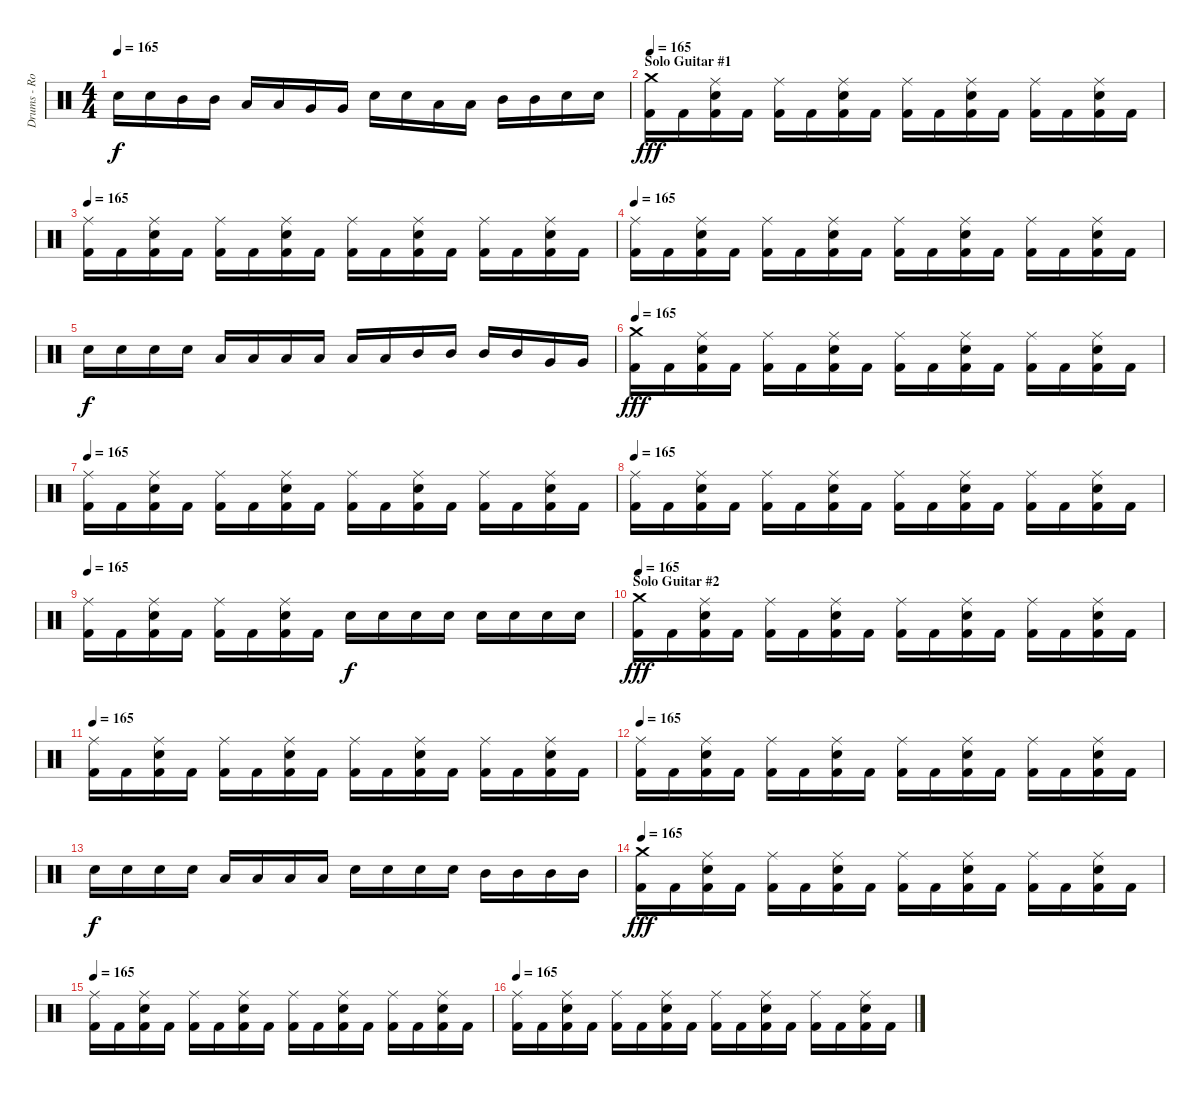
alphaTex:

\track ("Drums - Rodrigo" "Drums - Ro") {instrument percussion}
\staff {score}
\articulation defaults
\ts (4 4)
\tempo 165
\clef neutral
\ks c "Electric Snare (hit)".16{dy f} "Electric Snare (hit)".16 "Mid Tom (hit)".16 "Mid Tom (hit)".16 "Low Tom (hit)".16 "Low Tom (hit)".16 "Very Low Tom (hit)".16 "Very Low Tom (hit)".16 "Electric Snare (hit)".16 "Electric Snare (hit)".16 "Low Tom (hit)".16 "Low Tom (hit)".16 "Mid Tom (hit)".16 "Mid Tom (hit)".16 "Electric Snare (hit)".16 "Electric Snare (hit)".16
|
\section ("" "Solo Guitar #1")
\tempo 165
("Crash medium (hit)" "Kick (hit) 2").16{dy fff} "Kick (hit) 2".16 ("Ride (middle)" "Electric Snare (hit)" "Kick (hit) 2").16 "Kick (hit) 2".16 ("Ride (middle)" "Kick (hit) 2").16 "Kick (hit) 2".16 ("Ride (middle)" "Electric Snare (hit)" "Kick (hit) 2").16 "Kick (hit) 2".16 ("Ride (middle)" "Kick (hit) 2").16 "Kick (hit) 2".16 ("Ride (middle)" "Electric Snare (hit)" "Kick (hit) 2").16 "Kick (hit) 2".16 ("Ride (middle)" "Kick (hit) 2").16 "Kick (hit) 2".16 ("Ride (middle)" "Electric Snare (hit)" "Kick (hit) 2").16 "Kick (hit) 2".16 |
\tempo 165
("Ride (middle)" "Kick (hit) 2").16 "Kick (hit) 2".16 ("Ride (middle)" "Electric Snare (hit)" "Kick (hit) 2").16 "Kick (hit) 2".16 ("Ride (middle)" "Kick (hit) 2").16 "Kick (hit) 2".16 ("Ride (middle)" "Electric Snare (hit)" "Kick (hit) 2").16 "Kick (hit) 2".16 ("Ride (middle)" "Kick (hit) 2").16 "Kick (hit) 2".16 ("Ride (middle)" "Electric Snare (hit)" "Kick (hit) 2").16 "Kick (hit) 2".16 ("Ride (middle)" "Kick (hit) 2").16 "Kick (hit) 2".16 ("Ride (middle)" "Electric Snare (hit)" "Kick (hit) 2").16 "Kick (hit) 2".16 |
\tempo 165
("Ride (middle)" "Kick (hit) 2").16 "Kick (hit) 2".16 ("Ride (middle)" "Electric Snare (hit)" "Kick (hit) 2").16 "Kick (hit) 2".16 ("Ride (middle)" "Kick (hit) 2").16 "Kick (hit) 2".16 ("Ride (middle)" "Electric Snare (hit)" "Kick (hit) 2").16 "Kick (hit) 2".16 ("Ride (middle)" "Kick (hit) 2").16 "Kick (hit) 2".16 ("Ride (middle)" "Electric Snare (hit)" "Kick (hit) 2").16 "Kick (hit) 2".16 ("Ride (middle)" "Kick (hit) 2").16 "Kick (hit) 2".16 ("Ride (middle)" "Electric Snare (hit)" "Kick (hit) 2").16 "Kick (hit) 2".16 |
"Electric Snare (hit)".16{dy f} "Electric Snare (hit)".16 "Electric Snare (hit)".16 "Electric Snare (hit)".16 "Low Tom (hit)".16 "Low Tom (hit)".16 "Low Tom (hit)".16 "Low Tom (hit)".16 "Low Tom (hit)".16 "Low Tom (hit)".16 "Mid Tom (hit)".16 "Mid Tom (hit)".16 "Mid Tom (hit)".16 "Mid Tom (hit)".16 "Very Low Tom (hit)".16 "Very Low Tom (hit)".16 |
\tempo 165
("Crash medium (hit)" "Kick (hit) 2").16{dy fff} "Kick (hit) 2".16 ("Ride (middle)" "Electric Snare (hit)" "Kick (hit) 2").16 "Kick (hit) 2".16 ("Ride (middle)" "Kick (hit) 2").16 "Kick (hit) 2".16 ("Ride (middle)" "Electric Snare (hit)" "Kick (hit) 2").16 "Kick (hit) 2".16 ("Ride (middle)" "Kick (hit) 2").16 "Kick (hit) 2".16 ("Ride (middle)" "Electric Snare (hit)" "Kick (hit) 2").16 "Kick (hit) 2".16 ("Ride (middle)" "Kick (hit) 2").16 "Kick (hit) 2".16 ("Ride (middle)" "Electric Snare (hit)" "Kick (hit) 2").16 "Kick (hit) 2".16 |
\tempo 165
("Ride (middle)" "Kick (hit) 2").16 "Kick (hit) 2".16 ("Ride (middle)" "Electric Snare (hit)" "Kick (hit) 2").16 "Kick (hit) 2".16 ("Ride (middle)" "Kick (hit) 2").16 "Kick (hit) 2".16 ("Ride (middle)" "Electric Snare (hit)" "Kick (hit) 2").16 "Kick (hit) 2".16 ("Ride (middle)" "Kick (hit) 2").16 "Kick (hit) 2".16 ("Ride (middle)" "Electric Snare (hit)" "Kick (hit) 2").16 "Kick (hit) 2".16 ("Ride (middle)" "Kick (hit) 2").16 "Kick (hit) 2".16 ("Ride (middle)" "Electric Snare (hit)" "Kick (hit) 2").16 "Kick (hit) 2".16 |
\tempo 165
("Ride (middle)" "Kick (hit) 2").16 "Kick (hit) 2".16 ("Ride (middle)" "Electric Snare (hit)" "Kick (hit) 2").16 "Kick (hit) 2".16 ("Ride (middle)" "Kick (hit) 2").16 "Kick (hit) 2".16 ("Ride (middle)" "Electric Snare (hit)" "Kick (hit) 2").16 "Kick (hit) 2".16 ("Ride (middle)" "Kick (hit) 2").16 "Kick (hit) 2".16 ("Ride (middle)" "Electric Snare (hit)" "Kick (hit) 2").16 "Kick (hit) 2".16 ("Ride (middle)" "Kick (hit) 2").16 "Kick (hit) 2".16 ("Ride (middle)" "Electric Snare (hit)" "Kick (hit) 2").16 "Kick (hit) 2".16 |
\tempo 165
("Ride (middle)" "Kick (hit) 2").16 "Kick (hit) 2".16 ("Ride (middle)" "Electric Snare (hit)" "Kick (hit) 2").16 "Kick (hit) 2".16 ("Ride (middle)" "Kick (hit) 2").16 "Kick (hit) 2".16 ("Ride (middle)" "Electric Snare (hit)" "Kick (hit) 2").16 "Kick (hit) 2".16 "Electric Snare (hit)".16{dy f} "Electric Snare (hit)".16 "Electric Snare (hit)".16 "Electric Snare (hit)".16 "Electric Snare (hit)".16 "Electric Snare (hit)".16 "Electric Snare (hit)".16 "Electric Snare (hit)".16 |
\section ("" "Solo Guitar #2")
\tempo 165
("Crash medium (hit)" "Kick (hit) 2").16{dy fff} "Kick (hit) 2".16 ("Ride (middle)" "Electric Snare (hit)" "Kick (hit) 2").16 "Kick (hit) 2".16 ("Ride (middle)" "Kick (hit) 2").16 "Kick (hit) 2".16 ("Ride (middle)" "Electric Snare (hit)" "Kick (hit) 2").16 "Kick (hit) 2".16 ("Ride (middle)" "Kick (hit) 2").16 "Kick (hit) 2".16 ("Ride (middle)" "Electric Snare (hit)" "Kick (hit) 2").16 "Kick (hit) 2".16 ("Ride (middle)" "Kick (hit) 2").16 "Kick (hit) 2".16 ("Ride (middle)" "Electric Snare (hit)" "Kick (hit) 2").16 "Kick (hit) 2".16 |
\tempo 165
("Ride (middle)" "Kick (hit) 2").16 "Kick (hit) 2".16 ("Ride (middle)" "Electric Snare (hit)" "Kick (hit) 2").16 "Kick (hit) 2".16 ("Ride (middle)" "Kick (hit) 2").16 "Kick (hit) 2".16 ("Ride (middle)" "Electric Snare (hit)" "Kick (hit) 2").16 "Kick (hit) 2".16 ("Ride (middle)" "Kick (hit) 2").16 "Kick (hit) 2".16 ("Ride (middle)" "Electric Snare (hit)" "Kick (hit) 2").16 "Kick (hit) 2".16 ("Ride (middle)" "Kick (hit) 2").16 "Kick (hit) 2".16 ("Ride (middle)" "Electric Snare (hit)" "Kick (hit) 2").16 "Kick (hit) 2".16 |
\tempo 165
("Ride (middle)" "Kick (hit) 2").16 "Kick (hit) 2".16 ("Ride (middle)" "Electric Snare (hit)" "Kick (hit) 2").16 "Kick (hit) 2".16 ("Ride (middle)" "Kick (hit) 2").16 "Kick (hit) 2".16 ("Ride (middle)" "Electric Snare (hit)" "Kick (hit) 2").16 "Kick (hit) 2".16 ("Ride (middle)" "Kick (hit) 2").16 "Kick (hit) 2".16 ("Ride (middle)" "Electric Snare (hit)" "Kick (hit) 2").16 "Kick (hit) 2".16 ("Ride (middle)" "Kick (hit) 2").16 "Kick (hit) 2".16 ("Ride (middle)" "Electric Snare (hit)" "Kick (hit) 2").16 "Kick (hit) 2".16 |
"Electric Snare (hit)".16{dy f} "Electric Snare (hit)".16 "Electric Snare (hit)".16 "Electric Snare (hit)".16 "Low Tom (hit)".16 "Low Tom (hit)".16 "Low Tom (hit)".16 "Low Tom (hit)".16 "Electric Snare (hit)".16 "Electric Snare (hit)".16 "Electric Snare (hit)".16 "Electric Snare (hit)".16 "Mid Tom (hit)".16 "Mid Tom (hit)".16 "Mid Tom (hit)".16 "Mid Tom (hit)".16 |
\tempo 165
("Crash medium (hit)" "Kick (hit) 2").16{dy fff} "Kick (hit) 2".16 ("Ride (middle)" "Electric Snare (hit)" "Kick (hit) 2").16 "Kick (hit) 2".16 ("Ride (middle)" "Kick (hit) 2").16 "Kick (hit) 2".16 ("Ride (middle)" "Electric Snare (hit)" "Kick (hit) 2").16 "Kick (hit) 2".16 ("Ride (middle)" "Kick (hit) 2").16 "Kick (hit) 2".16 ("Ride (middle)" "Electric Snare (hit)" "Kick (hit) 2").16 "Kick (hit) 2".16 ("Ride (middle)" "Kick (hit) 2").16 "Kick (hit) 2".16 ("Ride (middle)" "Electric Snare (hit)" "Kick (hit) 2").16 "Kick (hit) 2".16 |
\tempo 165
("Ride (middle)" "Kick (hit) 2").16 "Kick (hit) 2".16 ("Ride (middle)" "Electric Snare (hit)" "Kick (hit) 2").16 "Kick (hit) 2".16 ("Ride (middle)" "Kick (hit) 2").16 "Kick (hit) 2".16 ("Ride (middle)" "Electric Snare (hit)" "Kick (hit) 2").16 "Kick (hit) 2".16 ("Ride (middle)" "Kick (hit) 2").16 "Kick (hit) 2".16 ("Ride (middle)" "Electric Snare (hit)" "Kick (hit) 2").16 "Kick (hit) 2".16 ("Ride (middle)" "Kick (hit) 2").16 "Kick (hit) 2".16 ("Ride (middle)" "Electric Snare (hit)" "Kick (hit) 2").16 "Kick (hit) 2".16 |
\tempo 165
("Ride (middle)" "Kick (hit) 2").16 "Kick (hit) 2".16 ("Ride (middle)" "Electric Snare (hit)" "Kick (hit) 2").16 "Kick (hit) 2".16 ("Ride (middle)" "Kick (hit) 2").16 "Kick (hit) 2".16 ("Ride (middle)" "Electric Snare (hit)" "Kick (hit) 2").16 "Kick (hit) 2".16 ("Ride (middle)" "Kick (hit) 2").16 "Kick (hit) 2".16 ("Ride (middle)" "Electric Snare (hit)" "Kick (hit) 2").16 "Kick (hit) 2".16 ("Ride (middle)" "Kick (hit) 2").16 "Kick (hit) 2".16 ("Ride (middle)" "Electric Snare (hit)" "Kick (hit) 2").16 "Kick (hit) 2".16
